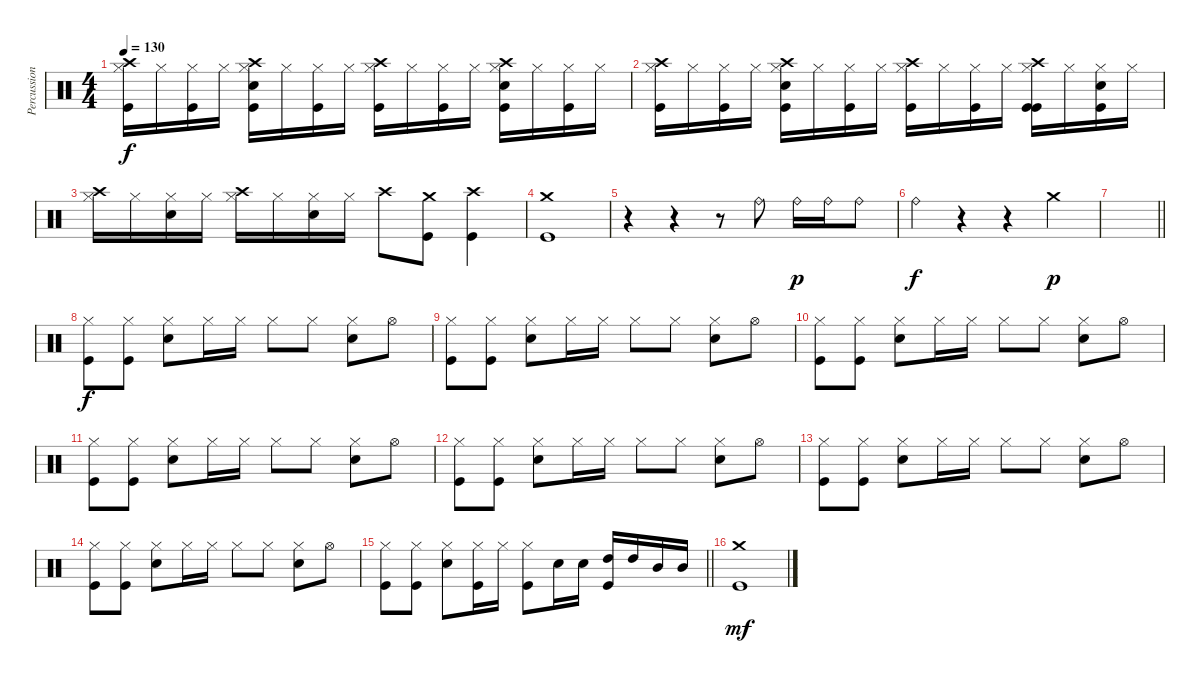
\track ("Percussion" "Percussion") {instrument percussion}
\staff {score}
\articulation defaults
\ts (4 4)
\tempo 130
\clef neutral
\ks c
("Crash high (hit)" "Hi-Hat (closed)" "Kick (hit)").16{dy f} "Hi-Hat (closed)".16 ("Hi-Hat (closed)" "Kick (hit)").16 "Hi-Hat (closed)".16 ("Crash high (hit)" "Hi-Hat (closed)" "Electric Snare (hit)" "Kick (hit)").16 "Hi-Hat (closed)".16 ("Hi-Hat (closed)" "Kick (hit)").16 "Hi-Hat (closed)".16 ("Crash high (hit)" "Hi-Hat (closed)" "Kick (hit)").16 "Hi-Hat (closed)".16 ("Hi-Hat (closed)" "Kick (hit)").16 "Hi-Hat (closed)".16 ("Crash high (hit)" "Hi-Hat (closed)" "Electric Snare (hit)" "Kick (hit)").16 "Hi-Hat (closed)".16 ("Hi-Hat (closed)" "Kick (hit)").16 "Hi-Hat (closed)".16 |
("Crash high (hit)" "Hi-Hat (closed)" "Kick (hit)").16 "Hi-Hat (closed)".16 ("Hi-Hat (closed)" "Kick (hit)").16 "Hi-Hat (closed)".16 ("Crash high (hit)" "Hi-Hat (closed)" "Electric Snare (hit)" "Kick (hit)").16 "Hi-Hat (closed)".16 ("Hi-Hat (closed)" "Kick (hit)").16 "Hi-Hat (closed)".16 ("Crash high (hit)" "Hi-Hat (closed)" "Kick (hit)").16 "Hi-Hat (closed)".16 ("Hi-Hat (closed)" "Kick (hit)").16 "Hi-Hat (closed)".16 ("Crash high (hit)" "Hi-Hat (closed)" "Kick (hit)" "Kick (hit)").16 "Hi-Hat (closed)".16 ("Hi-Hat (closed)" "Electric Snare (hit)" "Kick (hit)").16 "Hi-Hat (closed)".16 |
("Crash high (hit)" "Hi-Hat (closed)").16 "Hi-Hat (closed)".16 ("Hi-Hat (closed)" "Electric Snare (hit)").16 "Hi-Hat (closed)".16 ("Crash high (hit)" "Hi-Hat (closed)").16 "Hi-Hat (closed)".16 ("Hi-Hat (closed)" "Electric Snare (hit)").16 "Hi-Hat (closed)".16 "Crash high (hit)".8 ("Crash medium (hit)" "Kick (hit)").8 ("Crash high (hit)" "Kick (hit)").4 |
("Crash medium (hit)" "Kick (hit)").1 |
r.4 r.4 r.8 "Ride (bell)".8 "Ride (bell)".16{dy p} "Ride (bell)".16 "Ride (bell)".8 |
"Ride (bell)".4{dy f} r.4 r.4 "Crash medium (hit)".4{dy p} |
\barLineRight lightlight
|
("Hi-Hat (closed)" "Kick (hit)").8{dy f} ("Hi-Hat (closed)" "Kick (hit)").8 ("Hi-Hat (closed)" "Electric Snare (hit)").8 "Hi-Hat (closed)".16 "Hi-Hat (closed)".16 "Hi-Hat (closed)".8 "Hi-Hat (closed)".8 ("Hi-Hat (closed)" "Electric Snare (hit)").8 "Hi-Hat (open)".8 |
("Hi-Hat (closed)" "Kick (hit)").8 ("Hi-Hat (closed)" "Kick (hit)").8 ("Hi-Hat (closed)" "Electric Snare (hit)").8 "Hi-Hat (closed)".16 "Hi-Hat (closed)".16 "Hi-Hat (closed)".8 "Hi-Hat (closed)".8 ("Hi-Hat (closed)" "Electric Snare (hit)").8 "Hi-Hat (open)".8 |
("Hi-Hat (closed)" "Kick (hit)").8 ("Hi-Hat (closed)" "Kick (hit)").8 ("Hi-Hat (closed)" "Electric Snare (hit)").8 "Hi-Hat (closed)".16 "Hi-Hat (closed)".16 "Hi-Hat (closed)".8 "Hi-Hat (closed)".8 ("Hi-Hat (closed)" "Electric Snare (hit)").8 "Hi-Hat (open)".8 |
("Hi-Hat (closed)" "Kick (hit)").8 ("Hi-Hat (closed)" "Kick (hit)").8 ("Hi-Hat (closed)" "Electric Snare (hit)").8 "Hi-Hat (closed)".16 "Hi-Hat (closed)".16 "Hi-Hat (closed)".8 "Hi-Hat (closed)".8 ("Hi-Hat (closed)" "Electric Snare (hit)").8 "Hi-Hat (open)".8 |
("Hi-Hat (closed)" "Kick (hit)").8 ("Hi-Hat (closed)" "Kick (hit)").8 ("Hi-Hat (closed)" "Electric Snare (hit)").8 "Hi-Hat (closed)".16 "Hi-Hat (closed)".16 "Hi-Hat (closed)".8 "Hi-Hat (closed)".8 ("Hi-Hat (closed)" "Electric Snare (hit)").8 "Hi-Hat (open)".8 |
("Hi-Hat (closed)" "Kick (hit)").8 ("Hi-Hat (closed)" "Kick (hit)").8 ("Hi-Hat (closed)" "Electric Snare (hit)").8 "Hi-Hat (closed)".16 "Hi-Hat (closed)".16 "Hi-Hat (closed)".8 "Hi-Hat (closed)".8 ("Hi-Hat (closed)" "Electric Snare (hit)").8 "Hi-Hat (open)".8 |
("Hi-Hat (closed)" "Kick (hit)").8 ("Hi-Hat (closed)" "Kick (hit)").8 ("Hi-Hat (closed)" "Electric Snare (hit)").8 "Hi-Hat (closed)".16 "Hi-Hat (closed)".16 "Hi-Hat (closed)".8 "Hi-Hat (closed)".8 ("Hi-Hat (closed)" "Electric Snare (hit)").8 "Hi-Hat (open)".8 |
\barLineRight lightlight
("Hi-Hat (closed)" "Kick (hit)").8 ("Hi-Hat (closed)" "Kick (hit)").8 ("Hi-Hat (closed)" "Electric Snare (hit)").8 ("Hi-Hat (closed)" "Kick (hit)").16 "Hi-Hat (closed)".16 ("Hi-Hat (closed)" "Kick (hit)").8 "Electric Snare (hit)".16 "Electric Snare (hit)".16 ("High Tom (hit)" "Kick (hit)").16 "High Tom (hit)".16 "Mid Tom (hit)".16 "Mid Tom (hit)".16 |
("Crash medium (hit)" "Kick (hit)").1{dy mf}
